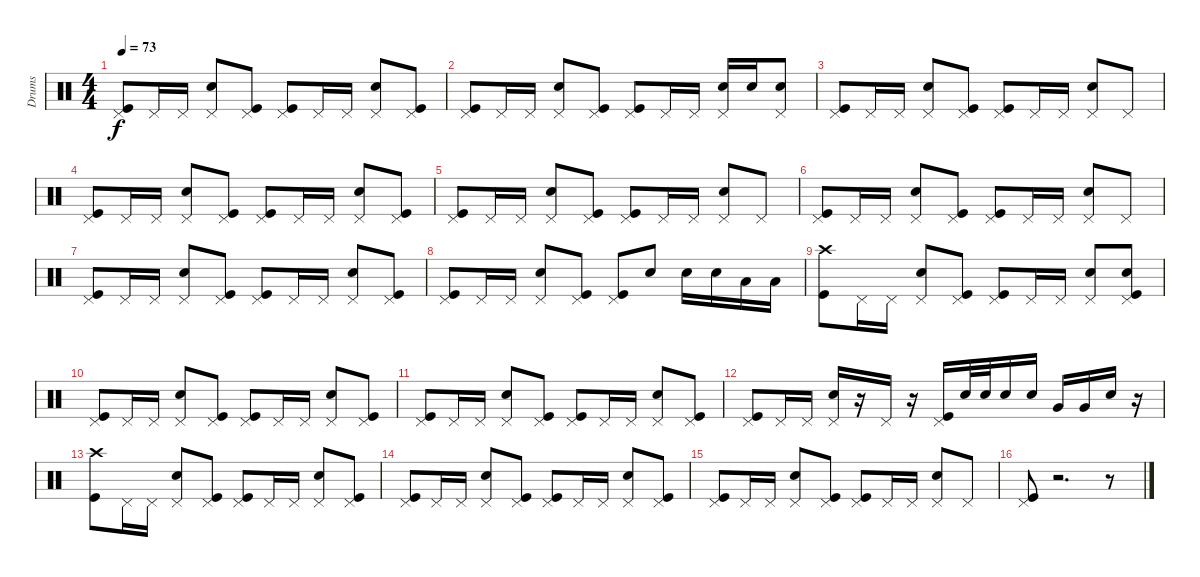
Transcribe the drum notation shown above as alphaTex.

\track ("Drums" "Drums") {instrument percussion}
\staff {score}
\articulation defaults
\ts (4 4)
\tempo 73
\clef neutral
\ks c
("Kick (hit)" "Pedal Hi-Hat (hit)").8{dy f} "Pedal Hi-Hat (hit)".16 "Pedal Hi-Hat (hit)".16 ("Snare (hit) 2" "Pedal Hi-Hat (hit)").8 ("Kick (hit)" "Pedal Hi-Hat (hit)").8 ("Kick (hit)" "Pedal Hi-Hat (hit)").8 "Pedal Hi-Hat (hit)".16 "Pedal Hi-Hat (hit)".16 ("Snare (hit) 2" "Pedal Hi-Hat (hit)").8 ("Pedal Hi-Hat (hit)" "Kick (hit)").8 |
("Kick (hit)" "Pedal Hi-Hat (hit)").8 "Pedal Hi-Hat (hit)".16 "Pedal Hi-Hat (hit)".16 ("Snare (hit) 2" "Pedal Hi-Hat (hit)").8 ("Kick (hit)" "Pedal Hi-Hat (hit)").8 ("Kick (hit)" "Pedal Hi-Hat (hit)").8 "Pedal Hi-Hat (hit)".16 "Pedal Hi-Hat (hit)".16 ("Snare (hit) 2" "Pedal Hi-Hat (hit)").16 "Electric Snare (hit)".16 ("Pedal Hi-Hat (hit)" "Electric Snare (hit)").8 |
("Kick (hit)" "Pedal Hi-Hat (hit)").8 "Pedal Hi-Hat (hit)".16 "Pedal Hi-Hat (hit)".16 ("Snare (hit) 2" "Pedal Hi-Hat (hit)").8 ("Kick (hit)" "Pedal Hi-Hat (hit)").8 ("Kick (hit)" "Pedal Hi-Hat (hit)").8 "Pedal Hi-Hat (hit)".16 "Pedal Hi-Hat (hit)".16 ("Snare (hit) 2" "Pedal Hi-Hat (hit)").8 "Pedal Hi-Hat (hit)".8 |
("Kick (hit)" "Pedal Hi-Hat (hit)").8 "Pedal Hi-Hat (hit)".16 "Pedal Hi-Hat (hit)".16 ("Snare (hit) 2" "Pedal Hi-Hat (hit)").8 ("Kick (hit)" "Pedal Hi-Hat (hit)").8 ("Kick (hit)" "Pedal Hi-Hat (hit)").8 "Pedal Hi-Hat (hit)".16 "Pedal Hi-Hat (hit)".16 ("Snare (hit) 2" "Pedal Hi-Hat (hit)").8 ("Pedal Hi-Hat (hit)" "Kick (hit)").8 |
("Kick (hit)" "Pedal Hi-Hat (hit)").8 "Pedal Hi-Hat (hit)".16 "Pedal Hi-Hat (hit)".16 ("Snare (hit) 2" "Pedal Hi-Hat (hit)").8 ("Kick (hit)" "Pedal Hi-Hat (hit)").8 ("Kick (hit)" "Pedal Hi-Hat (hit)").8 "Pedal Hi-Hat (hit)".16 "Pedal Hi-Hat (hit)".16 ("Snare (hit) 2" "Pedal Hi-Hat (hit)").8 "Pedal Hi-Hat (hit)".8 |
("Kick (hit)" "Pedal Hi-Hat (hit)").8 "Pedal Hi-Hat (hit)".16 "Pedal Hi-Hat (hit)".16 ("Snare (hit) 2" "Pedal Hi-Hat (hit)").8 ("Kick (hit)" "Pedal Hi-Hat (hit)").8 ("Kick (hit)" "Pedal Hi-Hat (hit)").8 "Pedal Hi-Hat (hit)".16 "Pedal Hi-Hat (hit)".16 ("Snare (hit) 2" "Pedal Hi-Hat (hit)").8 "Pedal Hi-Hat (hit)".8 |
("Kick (hit)" "Pedal Hi-Hat (hit)").8 "Pedal Hi-Hat (hit)".16 "Pedal Hi-Hat (hit)".16 ("Snare (hit) 2" "Pedal Hi-Hat (hit)").8 ("Kick (hit)" "Pedal Hi-Hat (hit)").8 ("Kick (hit)" "Pedal Hi-Hat (hit)").8 "Pedal Hi-Hat (hit)".16 "Pedal Hi-Hat (hit)".16 ("Snare (hit) 2" "Pedal Hi-Hat (hit)").8 ("Pedal Hi-Hat (hit)" "Kick (hit)").8 |
("Kick (hit)" "Pedal Hi-Hat (hit)").8 "Pedal Hi-Hat (hit)".16 "Pedal Hi-Hat (hit)".16 ("Snare (hit) 2" "Pedal Hi-Hat (hit)").8 ("Kick (hit)" "Pedal Hi-Hat (hit)").8 ("Kick (hit)" "Pedal Hi-Hat (hit)").8 "Snare (hit) 2".8 "Snare (hit) 2".16 "Snare (hit) 2".16 "Low Tom (hit)".16 "Low Tom (hit)".16 |
("Crash high (hit)" "Kick (hit)").8 "Pedal Hi-Hat (hit)".16 "Pedal Hi-Hat (hit)".16 ("Snare (hit) 2" "Pedal Hi-Hat (hit)").8 ("Kick (hit)" "Pedal Hi-Hat (hit)").8 ("Kick (hit)" "Pedal Hi-Hat (hit)").8 "Pedal Hi-Hat (hit)".16 "Pedal Hi-Hat (hit)".16 ("Snare (hit) 2" "Pedal Hi-Hat (hit)").8 ("Pedal Hi-Hat (hit)" "Kick (hit)" "Snare (hit) 2").8 |
("Pedal Hi-Hat (hit)" "Kick (hit)").8 "Pedal Hi-Hat (hit)".16 "Pedal Hi-Hat (hit)".16 ("Snare (hit) 2" "Pedal Hi-Hat (hit)").8 ("Kick (hit)" "Pedal Hi-Hat (hit)").8 ("Kick (hit)" "Pedal Hi-Hat (hit)").8 "Pedal Hi-Hat (hit)".16 "Pedal Hi-Hat (hit)".16 ("Snare (hit) 2" "Pedal Hi-Hat (hit)").8 ("Pedal Hi-Hat (hit)" "Kick (hit)").8 |
("Pedal Hi-Hat (hit)" "Kick (hit)").8 "Pedal Hi-Hat (hit)".16 "Pedal Hi-Hat (hit)".16 ("Snare (hit) 2" "Pedal Hi-Hat (hit)").8 ("Kick (hit)" "Pedal Hi-Hat (hit)").8 ("Kick (hit)" "Pedal Hi-Hat (hit)").8 "Pedal Hi-Hat (hit)".16 "Pedal Hi-Hat (hit)".16 ("Snare (hit) 2" "Pedal Hi-Hat (hit)").8 ("Pedal Hi-Hat (hit)" "Kick (hit)").8 |
("Kick (hit)" "Pedal Hi-Hat (hit)").8 "Pedal Hi-Hat (hit)".16 "Pedal Hi-Hat (hit)".16 ("Snare (hit) 2" "Pedal Hi-Hat (hit)").16 r.16 "Pedal Hi-Hat (hit)".16 r.16 ("Kick (hit)" "Pedal Hi-Hat (hit)").16 "Snare (hit) 2".32 "Snare (hit) 2".32 "Snare (hit) 2".16 "Snare (hit) 2".16 "Very Low Tom (hit)".16 "Very Low Tom (hit)".16 "Electric Snare (hit)".16 r.16 |
("Crash high (hit)" "Kick (hit)").8 "Pedal Hi-Hat (hit)".16 "Pedal Hi-Hat (hit)".16 ("Snare (hit) 2" "Pedal Hi-Hat (hit)").8 ("Kick (hit)" "Pedal Hi-Hat (hit)").8 ("Kick (hit)" "Pedal Hi-Hat (hit)").8 "Pedal Hi-Hat (hit)".16 "Pedal Hi-Hat (hit)".16 ("Snare (hit) 2" "Pedal Hi-Hat (hit)").8 ("Pedal Hi-Hat (hit)" "Kick (hit)").8 |
("Kick (hit)" "Pedal Hi-Hat (hit)").8 "Pedal Hi-Hat (hit)".16 "Pedal Hi-Hat (hit)".16 ("Snare (hit) 2" "Pedal Hi-Hat (hit)").8 ("Kick (hit)" "Pedal Hi-Hat (hit)").8 ("Kick (hit)" "Pedal Hi-Hat (hit)").8 "Pedal Hi-Hat (hit)".16 "Pedal Hi-Hat (hit)".16 ("Snare (hit) 2" "Pedal Hi-Hat (hit)").8 ("Pedal Hi-Hat (hit)" "Kick (hit)").8 |
("Kick (hit)" "Pedal Hi-Hat (hit)").8 "Pedal Hi-Hat (hit)".16 "Pedal Hi-Hat (hit)".16 ("Snare (hit) 2" "Pedal Hi-Hat (hit)").8 ("Kick (hit)" "Pedal Hi-Hat (hit)").8 ("Kick (hit)" "Pedal Hi-Hat (hit)").8 "Pedal Hi-Hat (hit)".16 "Pedal Hi-Hat (hit)".16 ("Snare (hit) 2" "Pedal Hi-Hat (hit)").8 "Pedal Hi-Hat (hit)".8 |
("Pedal Hi-Hat (hit)" "Kick (hit)").8 r.2{d} r.8
